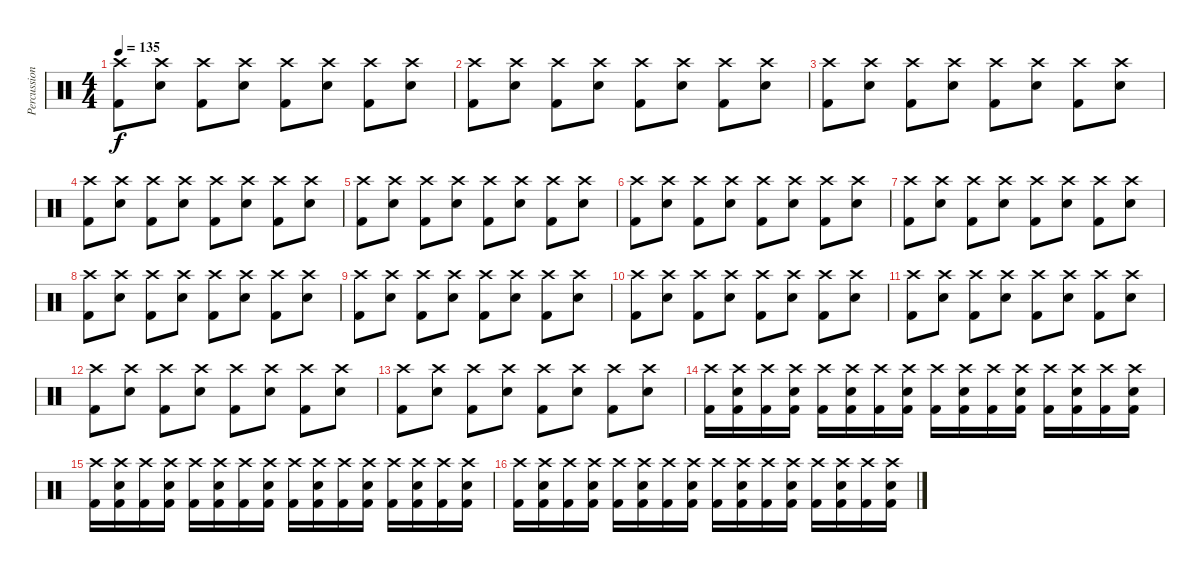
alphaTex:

\track ("Percussion" "Percussion") {instrument percussion}
\staff {score}
\articulation defaults
\ts (4 4)
\tempo 135
\clef neutral
\ks c
("Crash high (hit)" "Kick (hit) 2").8{dy f} ("Crash high (hit)" "Electric Snare (hit)").8 ("Crash high (hit)" "Kick (hit) 2").8 ("Crash high (hit)" "Electric Snare (hit)").8 ("Crash high (hit)" "Kick (hit) 2").8 ("Crash high (hit)" "Electric Snare (hit)").8 ("Crash high (hit)" "Kick (hit) 2").8 ("Crash high (hit)" "Electric Snare (hit)").8 |
("Crash high (hit)" "Kick (hit) 2").8 ("Crash high (hit)" "Electric Snare (hit)").8 ("Crash high (hit)" "Kick (hit) 2").8 ("Crash high (hit)" "Electric Snare (hit)").8 ("Crash high (hit)" "Kick (hit) 2").8 ("Crash high (hit)" "Electric Snare (hit)").8 ("Crash high (hit)" "Kick (hit) 2").8 ("Crash high (hit)" "Electric Snare (hit)").8 |
("Crash high (hit)" "Kick (hit) 2").8 ("Crash high (hit)" "Electric Snare (hit)").8 ("Crash high (hit)" "Kick (hit) 2").8 ("Crash high (hit)" "Electric Snare (hit)").8 ("Crash high (hit)" "Kick (hit) 2").8 ("Crash high (hit)" "Electric Snare (hit)").8 ("Crash high (hit)" "Kick (hit) 2").8 ("Crash high (hit)" "Electric Snare (hit)").8 |
("Crash high (hit)" "Kick (hit) 2").8 ("Crash high (hit)" "Electric Snare (hit)").8 ("Crash high (hit)" "Kick (hit) 2").8 ("Crash high (hit)" "Electric Snare (hit)").8 ("Crash high (hit)" "Kick (hit) 2").8 ("Crash high (hit)" "Electric Snare (hit)").8 ("Crash high (hit)" "Kick (hit) 2").8 ("Crash high (hit)" "Electric Snare (hit)").8 |
("Crash high (hit)" "Kick (hit) 2").8 ("Crash high (hit)" "Electric Snare (hit)").8 ("Crash high (hit)" "Kick (hit) 2").8 ("Crash high (hit)" "Electric Snare (hit)").8 ("Crash high (hit)" "Kick (hit) 2").8 ("Crash high (hit)" "Electric Snare (hit)").8 ("Crash high (hit)" "Kick (hit) 2").8 ("Crash high (hit)" "Electric Snare (hit)").8 |
("Crash high (hit)" "Kick (hit) 2").8 ("Crash high (hit)" "Electric Snare (hit)").8 ("Crash high (hit)" "Kick (hit) 2").8 ("Crash high (hit)" "Electric Snare (hit)").8 ("Crash high (hit)" "Kick (hit) 2").8 ("Crash high (hit)" "Electric Snare (hit)").8 ("Crash high (hit)" "Kick (hit) 2").8 ("Crash high (hit)" "Electric Snare (hit)").8 |
("Crash high (hit)" "Kick (hit) 2").8 ("Crash high (hit)" "Electric Snare (hit)").8 ("Crash high (hit)" "Kick (hit) 2").8 ("Crash high (hit)" "Electric Snare (hit)").8 ("Crash high (hit)" "Kick (hit) 2").8 ("Crash high (hit)" "Electric Snare (hit)").8 ("Crash high (hit)" "Kick (hit) 2").8 ("Crash high (hit)" "Electric Snare (hit)").8 |
("Crash high (hit)" "Kick (hit) 2").8 ("Crash high (hit)" "Electric Snare (hit)").8 ("Crash high (hit)" "Kick (hit) 2").8 ("Crash high (hit)" "Electric Snare (hit)").8 ("Crash high (hit)" "Kick (hit) 2").8 ("Crash high (hit)" "Electric Snare (hit)").8 ("Crash high (hit)" "Kick (hit) 2").8 ("Crash high (hit)" "Electric Snare (hit)").8 |
("Crash high (hit)" "Kick (hit) 2").8 ("Crash high (hit)" "Electric Snare (hit)").8 ("Crash high (hit)" "Kick (hit) 2").8 ("Crash high (hit)" "Electric Snare (hit)").8 ("Crash high (hit)" "Kick (hit) 2").8 ("Crash high (hit)" "Electric Snare (hit)").8 ("Crash high (hit)" "Kick (hit) 2").8 ("Crash high (hit)" "Electric Snare (hit)").8 |
("Crash high (hit)" "Kick (hit) 2").8 ("Crash high (hit)" "Electric Snare (hit)").8 ("Crash high (hit)" "Kick (hit) 2").8 ("Crash high (hit)" "Electric Snare (hit)").8 ("Crash high (hit)" "Kick (hit) 2").8 ("Crash high (hit)" "Electric Snare (hit)").8 ("Crash high (hit)" "Kick (hit) 2").8 ("Crash high (hit)" "Electric Snare (hit)").8 |
("Crash high (hit)" "Kick (hit) 2").8 ("Crash high (hit)" "Electric Snare (hit)").8 ("Crash high (hit)" "Kick (hit) 2").8 ("Crash high (hit)" "Electric Snare (hit)").8 ("Crash high (hit)" "Kick (hit) 2").8 ("Crash high (hit)" "Electric Snare (hit)").8 ("Crash high (hit)" "Kick (hit) 2").8 ("Crash high (hit)" "Electric Snare (hit)").8 |
("Crash high (hit)" "Kick (hit) 2").8 ("Crash high (hit)" "Electric Snare (hit)").8 ("Crash high (hit)" "Kick (hit) 2").8 ("Crash high (hit)" "Electric Snare (hit)").8 ("Crash high (hit)" "Kick (hit) 2").8 ("Crash high (hit)" "Electric Snare (hit)").8 ("Crash high (hit)" "Kick (hit) 2").8 ("Crash high (hit)" "Electric Snare (hit)").8 |
("Crash high (hit)" "Kick (hit) 2").8 ("Crash high (hit)" "Electric Snare (hit)").8 ("Crash high (hit)" "Kick (hit) 2").8 ("Crash high (hit)" "Electric Snare (hit)").8 ("Crash high (hit)" "Kick (hit) 2").8 ("Crash high (hit)" "Electric Snare (hit)").8 ("Crash high (hit)" "Kick (hit) 2").8 ("Crash high (hit)" "Electric Snare (hit)").8 |
("Crash high (hit)" "Kick (hit) 2").16 ("Crash high (hit)" "Electric Snare (hit)" "Kick (hit) 2").16 ("Crash high (hit)" "Kick (hit) 2").16 ("Crash high (hit)" "Electric Snare (hit)" "Kick (hit) 2").16 ("Crash high (hit)" "Kick (hit) 2").16 ("Crash high (hit)" "Electric Snare (hit)" "Kick (hit) 2").16 ("Crash high (hit)" "Kick (hit) 2").16 ("Crash high (hit)" "Electric Snare (hit)" "Kick (hit) 2").16 ("Crash high (hit)" "Kick (hit) 2").16 ("Crash high (hit)" "Electric Snare (hit)" "Kick (hit) 2").16 ("Crash high (hit)" "Kick (hit) 2").16 ("Crash high (hit)" "Electric Snare (hit)" "Kick (hit) 2").16 ("Crash high (hit)" "Kick (hit) 2").16 ("Crash high (hit)" "Electric Snare (hit)" "Kick (hit) 2").16 ("Crash high (hit)" "Kick (hit) 2").16 ("Crash high (hit)" "Electric Snare (hit)" "Kick (hit) 2").16 |
("Crash high (hit)" "Kick (hit) 2").16 ("Crash high (hit)" "Electric Snare (hit)" "Kick (hit) 2").16 ("Crash high (hit)" "Kick (hit) 2").16 ("Crash high (hit)" "Electric Snare (hit)" "Kick (hit) 2").16 ("Crash high (hit)" "Kick (hit) 2").16 ("Crash high (hit)" "Electric Snare (hit)" "Kick (hit) 2").16 ("Crash high (hit)" "Kick (hit) 2").16 ("Crash high (hit)" "Electric Snare (hit)" "Kick (hit) 2").16 ("Crash high (hit)" "Kick (hit) 2").16 ("Crash high (hit)" "Electric Snare (hit)" "Kick (hit) 2").16 ("Crash high (hit)" "Kick (hit) 2").16 ("Crash high (hit)" "Electric Snare (hit)" "Kick (hit) 2").16 ("Crash high (hit)" "Kick (hit) 2").16 ("Crash high (hit)" "Electric Snare (hit)" "Kick (hit) 2").16 ("Crash high (hit)" "Kick (hit) 2").16 ("Crash high (hit)" "Electric Snare (hit)" "Kick (hit) 2").16 |
("Crash high (hit)" "Kick (hit) 2").16 ("Crash high (hit)" "Electric Snare (hit)" "Kick (hit) 2").16 ("Crash high (hit)" "Kick (hit) 2").16 ("Crash high (hit)" "Electric Snare (hit)" "Kick (hit) 2").16 ("Crash high (hit)" "Kick (hit) 2").16 ("Crash high (hit)" "Electric Snare (hit)" "Kick (hit) 2").16 ("Crash high (hit)" "Kick (hit) 2").16 ("Crash high (hit)" "Electric Snare (hit)" "Kick (hit) 2").16 ("Crash high (hit)" "Kick (hit) 2").16 ("Crash high (hit)" "Electric Snare (hit)" "Kick (hit) 2").16 ("Crash high (hit)" "Kick (hit) 2").16 ("Crash high (hit)" "Electric Snare (hit)" "Kick (hit) 2").16 ("Crash high (hit)" "Kick (hit) 2").16 ("Crash high (hit)" "Electric Snare (hit)" "Kick (hit) 2").16 ("Crash high (hit)" "Kick (hit) 2").16 ("Crash high (hit)" "Electric Snare (hit)" "Kick (hit) 2").16
